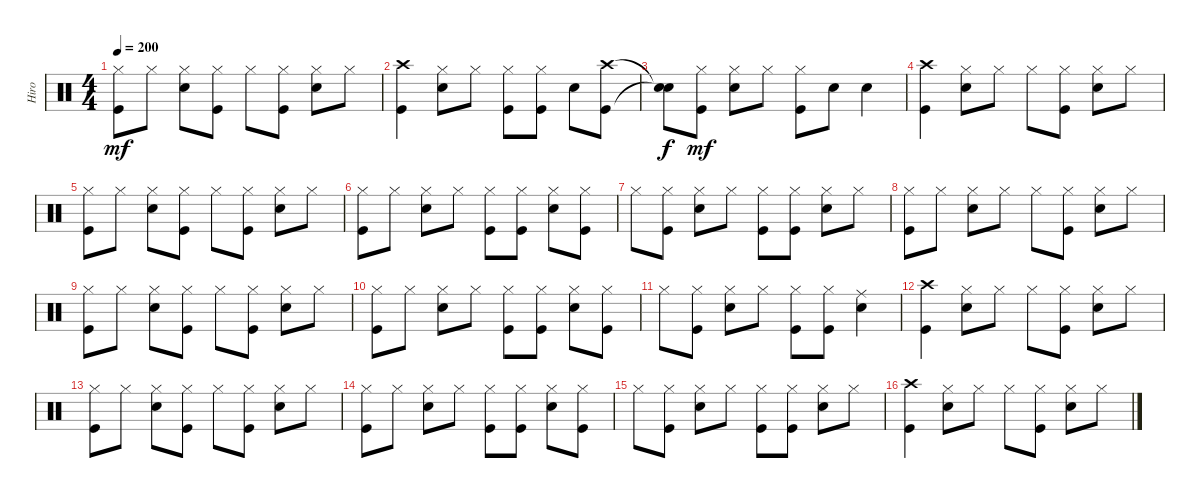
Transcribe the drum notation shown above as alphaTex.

\track ("Hiro" "Hiro") {instrument percussion}
\staff {score}
\articulation defaults
\ts (4 4)
\tempo 200
\clef neutral
\ks c
("Hi-Hat (closed)" "Kick (hit)").8{dy mf} "Hi-Hat (closed)".8 ("Hi-Hat (closed)" "Electric Snare (hit)").8 ("Hi-Hat (closed)" "Kick (hit)").8 "Hi-Hat (closed)".8 ("Hi-Hat (closed)" "Kick (hit)").8 ("Hi-Hat (closed)" "Electric Snare (hit)").8 "Hi-Hat (closed)".8 |
("Kick (hit)" "Crash high (hit)").4 ("Hi-Hat (closed)" "Electric Snare (hit)").8 "Hi-Hat (closed)".8 ("Hi-Hat (closed)" "Kick (hit)").8 ("Hi-Hat (closed)" "Kick (hit)").8 "Electric Snare (hit)".8 ("Crash high (hit)" "Kick (hit)").8 |
("Snare (hit)"{t} "Snare (hit)"{t}).8{dy f} ("Hi-Hat (closed)" "Kick (hit)").8{dy mf} ("Hi-Hat (closed)" "Electric Snare (hit)").8 "Hi-Hat (closed)".8 ("Hi-Hat (closed)" "Kick (hit)").8 "Electric Snare (hit)".8 "Electric Snare (hit)".4 |
("Crash high (hit)" "Kick (hit)").4 ("Electric Snare (hit)" "Hi-Hat (closed)").8 "Hi-Hat (closed)".8 "Hi-Hat (closed)".8 ("Kick (hit)" "Hi-Hat (closed)").8 ("Electric Snare (hit)" "Hi-Hat (closed)").8 "Hi-Hat (closed)".8 |
("Kick (hit)" "Hi-Hat (closed)").8 "Hi-Hat (closed)".8 ("Electric Snare (hit)" "Hi-Hat (closed)").8 ("Kick (hit)" "Hi-Hat (closed)").8 "Hi-Hat (closed)".8 ("Kick (hit)" "Hi-Hat (closed)").8 ("Electric Snare (hit)" "Hi-Hat (closed)").8 "Hi-Hat (closed)".8 |
("Kick (hit)" "Hi-Hat (closed)").8 "Hi-Hat (closed)".8 ("Electric Snare (hit)" "Hi-Hat (closed)").8 "Hi-Hat (closed)".8 ("Kick (hit)" "Hi-Hat (closed)").8 ("Kick (hit)" "Hi-Hat (closed)").8 ("Electric Snare (hit)" "Hi-Hat (closed)").8 ("Kick (hit)" "Hi-Hat (closed)").8 |
"Hi-Hat (closed)".8 ("Kick (hit)" "Hi-Hat (closed)").8 ("Electric Snare (hit)" "Hi-Hat (closed)").8 "Hi-Hat (closed)".8 ("Kick (hit)" "Hi-Hat (closed)").8 ("Kick (hit)" "Hi-Hat (closed)").8 ("Electric Snare (hit)" "Hi-Hat (closed)").8 "Hi-Hat (closed)".8 |
("Kick (hit)" "Hi-Hat (closed)").8 "Hi-Hat (closed)".8 ("Hi-Hat (closed)" "Electric Snare (hit)").8 "Hi-Hat (closed)".8 "Hi-Hat (closed)".8 ("Hi-Hat (closed)" "Kick (hit)").8 ("Hi-Hat (closed)" "Electric Snare (hit)").8 "Hi-Hat (closed)".8 |
("Hi-Hat (closed)" "Kick (hit)").8 "Hi-Hat (closed)".8 ("Hi-Hat (closed)" "Electric Snare (hit)").8 ("Hi-Hat (closed)" "Kick (hit)").8 "Hi-Hat (closed)".8 ("Hi-Hat (closed)" "Kick (hit)").8 ("Hi-Hat (closed)" "Electric Snare (hit)").8 "Hi-Hat (closed)".8 |
("Hi-Hat (closed)" "Kick (hit)").8 "Hi-Hat (closed)".8 ("Hi-Hat (closed)" "Electric Snare (hit)").8 "Hi-Hat (closed)".8 ("Hi-Hat (closed)" "Kick (hit)").8 ("Hi-Hat (closed)" "Kick (hit)").8 ("Hi-Hat (closed)" "Electric Snare (hit)").8 ("Hi-Hat (closed)" "Kick (hit)").8 |
"Hi-Hat (closed)".8 ("Hi-Hat (closed)" "Kick (hit)").8 ("Hi-Hat (closed)" "Electric Snare (hit)").8 "Hi-Hat (closed)".8 ("Hi-Hat (closed)" "Kick (hit)").8 ("Hi-Hat (closed)" "Kick (hit)").8 ("Electric Snare (hit)" "Ride (middle)").4 |
("Kick (hit)" "Crash high (hit)").4 ("Hi-Hat (closed)" "Electric Snare (hit)").8 "Hi-Hat (closed)".8 "Hi-Hat (closed)".8 ("Hi-Hat (closed)" "Kick (hit)").8 ("Hi-Hat (closed)" "Electric Snare (hit)").8 "Hi-Hat (closed)".8 |
("Hi-Hat (closed)" "Kick (hit)").8 "Hi-Hat (closed)".8 ("Hi-Hat (closed)" "Electric Snare (hit)").8 ("Hi-Hat (closed)" "Kick (hit)").8 "Hi-Hat (closed)".8 ("Hi-Hat (closed)" "Kick (hit)").8 ("Hi-Hat (closed)" "Electric Snare (hit)").8 "Hi-Hat (closed)".8 |
("Hi-Hat (closed)" "Kick (hit)").8 "Hi-Hat (closed)".8 ("Hi-Hat (closed)" "Electric Snare (hit)").8 "Hi-Hat (closed)".8 ("Hi-Hat (closed)" "Kick (hit)").8 ("Hi-Hat (closed)" "Kick (hit)").8 ("Hi-Hat (closed)" "Electric Snare (hit)").8 ("Hi-Hat (closed)" "Kick (hit)").8 |
"Hi-Hat (closed)".8 ("Hi-Hat (closed)" "Kick (hit)").8 ("Hi-Hat (closed)" "Electric Snare (hit)").8 "Hi-Hat (closed)".8 ("Hi-Hat (closed)" "Kick (hit)").8 ("Hi-Hat (closed)" "Kick (hit)").8 ("Hi-Hat (closed)" "Electric Snare (hit)").8 "Hi-Hat (closed)".8 |
("Crash high (hit)" "Kick (hit)").4 ("Electric Snare (hit)" "Hi-Hat (closed)").8 "Hi-Hat (closed)".8 "Hi-Hat (closed)".8 ("Kick (hit)" "Hi-Hat (closed)").8 ("Electric Snare (hit)" "Hi-Hat (closed)").8 "Hi-Hat (closed)".8
